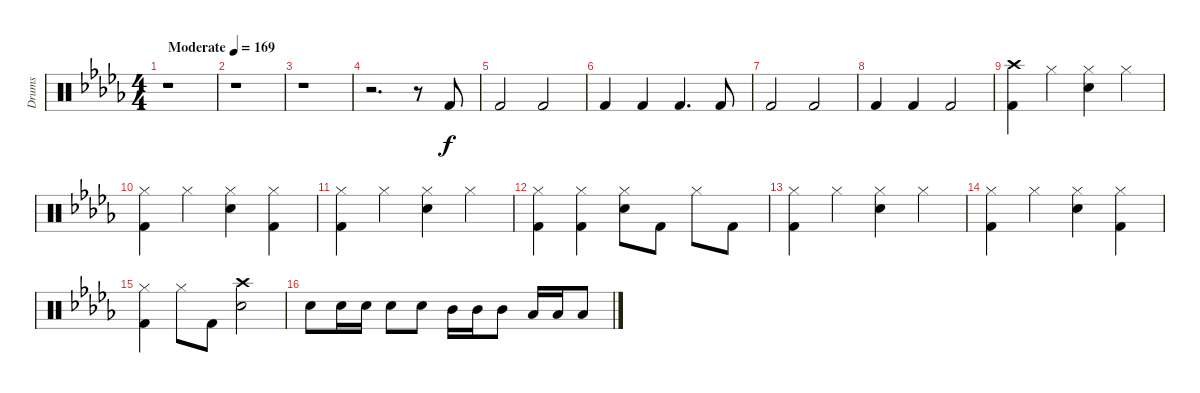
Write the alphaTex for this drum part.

\track ("Drums" "Drums") {instrument percussion}
\staff {score}
\articulation defaults
\ts (4 4)
\tempo (169 "Moderate")
\clef neutral
\ks db
r.1{dy f} |
r.1 |
r.1 |
r.2{d} r.8 "Kick (hit) 2".8 |
"Kick (hit) 2".2 "Kick (hit) 2".2 |
"Kick (hit) 2".4 "Kick (hit) 2".4 "Kick (hit) 2".4{d} "Kick (hit) 2".8 |
"Kick (hit) 2".2 "Kick (hit) 2".2 |
"Kick (hit) 2".4 "Kick (hit) 2".4 "Kick (hit) 2".2 |
("Crash high (hit)" "Kick (hit) 2").4 "Hi-Hat (closed)".4 ("Hi-Hat (closed)" "Snare (hit) 2").4 "Hi-Hat (closed)".4 |
("Hi-Hat (closed)" "Kick (hit) 2").4 "Hi-Hat (closed)".4 ("Hi-Hat (closed)" "Snare (hit) 2").4 ("Hi-Hat (closed)" "Kick (hit) 2").4 |
("Hi-Hat (closed)" "Kick (hit) 2").4 "Hi-Hat (closed)".4 ("Hi-Hat (closed)" "Snare (hit) 2").4 "Hi-Hat (closed)".4 |
("Hi-Hat (closed)" "Kick (hit) 2").4 ("Hi-Hat (closed)" "Kick (hit) 2").4 ("Hi-Hat (closed)" "Snare (hit) 2").8 "Kick (hit) 2".8 "Hi-Hat (closed)".8 "Kick (hit) 2".8 |
("Hi-Hat (closed)" "Kick (hit) 2").4 "Hi-Hat (closed)".4 ("Hi-Hat (closed)" "Snare (hit) 2").4 "Hi-Hat (closed)".4 |
("Hi-Hat (closed)" "Kick (hit) 2").4 "Hi-Hat (closed)".4 ("Hi-Hat (closed)" "Snare (hit) 2").4 ("Hi-Hat (closed)" "Kick (hit) 2").4 |
("Hi-Hat (closed)" "Kick (hit) 2").4 "Hi-Hat (closed)".8 "Kick (hit) 2".8 ("Crash high (hit)" "Snare (hit) 2").2 |
"Snare (hit) 2".8 "Snare (hit) 2".16 "Snare (hit) 2".16 "Snare (hit) 2".8 "Snare (hit) 2".8 "Mid Tom (hit)".16 "Mid Tom (hit)".16 "Mid Tom (hit)".8 "Low Tom (hit)".16 "Low Tom (hit)".16 "Low Tom (hit)".8
